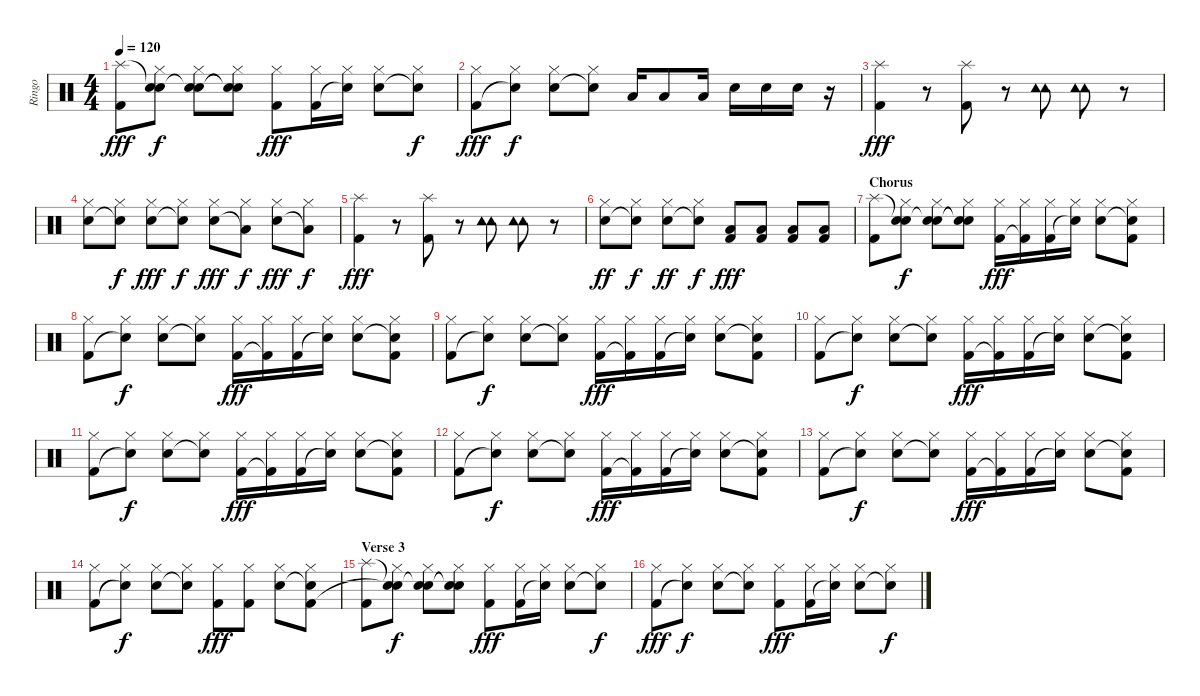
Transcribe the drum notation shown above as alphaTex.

\track ("Ringo" "Ringo") {instrument percussion}
\staff {score}
\articulation defaults
\ts (4 4)
\tempo 120
\clef neutral
\ks c
("Splash (hit)" "Kick (hit) 2").8{dy fff} ("Snare (hit)"{t} "Hi-Hat (closed)" "Snare (hit)").8{dy f} ("Snare (hit)"{t} "Hi-Hat (closed)" "Snare (hit) 2").8 ("Snare (hit)"{t} "Hi-Hat (closed)" "Snare (hit)"{t}).8 ("Hi-Hat (closed)" "Kick (hit) 2").8{dy fff} ("Hi-Hat (closed)" "Kick (hit) 2").16 ("Hi-Hat (closed)" "Snare (hit)"{t}).16 ("Hi-Hat (closed)" "Snare (hit) 2").8 ("Hi-Hat (closed)" "Snare (hit)"{t}).8{dy f} |
("Hi-Hat (closed)" "Kick (hit) 2").8{dy fff} ("Hi-Hat (closed)" "Snare (hit)"{t}).8{dy f} ("Hi-Hat (closed)" "Snare (hit) 2").8 ("Hi-Hat (closed)" "Snare (hit)"{t}).8 "Low Floor Tom (hit)".16 "Low Floor Tom (hit)".8 "Low Floor Tom (hit)".16 "Snare (hit) 2".16 "Snare (hit) 2".16 "Snare (hit) 2".16 r.16 |
("Splash (hit)" "Kick (hit) 2").4{dy fff} r.8 ("Splash (hit)" "Kick (hit) 2").8 r.8 ("Tambourine (hit)" "Tambourine (hit)").8 ("Tambourine (hit)" "Tambourine (hit)").8 r.8 |
("Hi-Hat (closed)" "Snare (hit) 2").8 ("Hi-Hat (closed)" "Snare (hit)"{t}).8{dy f} ("Hi-Hat (closed)" "Snare (hit) 2").8{dy fff} ("Hi-Hat (closed)" "Snare (hit)"{t}).8{dy f} ("Hi-Hat (closed)" "Snare (hit) 2").8{dy fff} ("Hi-Hat (closed)" "Low Floor Tom (hit)"{t}).8{dy f} ("Hi-Hat (closed)" "Snare (hit) 2").8{dy fff} ("Hi-Hat (closed)" "Low Floor Tom (hit)"{t}).8{dy f} |
("Splash (hit)" "Kick (hit) 2").4{dy fff} r.8 ("Splash (hit)" "Kick (hit) 2").8 r.8 ("Tambourine (hit)" "Tambourine (hit)").8 ("Tambourine (hit)" "Tambourine (hit)").8 r.8 |
("Hi-Hat (closed)" "Snare (hit) 2").8{dy ff} ("Hi-Hat (closed)" "Snare (hit)"{t}).8{dy f} ("Hi-Hat (closed)" "Snare (hit) 2").8{dy ff} ("Hi-Hat (closed)" "Snare (hit)"{t}).8{dy f} ("Low Floor Tom (hit)" "Kick (hit) 2").8{dy fff} ("Low Floor Tom (hit)" "Kick (hit) 2").8 ("Low Floor Tom (hit)" "Kick (hit) 2").8 ("Low Floor Tom (hit)" "Kick (hit) 2").8 |
\section ("" "Chorus")
("Splash (hit)" "Kick (hit) 2").8 ("Snare (hit)"{t} "Hi-Hat (closed)" "Snare (hit)").8{dy f} ("Snare (hit)"{t} "Hi-Hat (closed)" "Snare (hit) 2").8 ("Snare (hit)"{t} "Hi-Hat (closed)" "Snare (hit)"{t}).8 ("Hi-Hat (closed)" "Kick (hit) 2").16{dy fff} ("Hi-Hat (closed)" "Kick (hit) 2"{t}).16 ("Hi-Hat (closed)" "Kick (hit) 2").16 ("Hi-Hat (closed)" "Snare (hit)"{t}).16 ("Hi-Hat (closed)" "Snare (hit) 2").8 ("Hi-Hat (closed)" "Snare (hit)"{t} "Kick (hit) 2").8 |
("Hi-Hat (closed)" "Kick (hit) 2").8 ("Hi-Hat (closed)" "Snare (hit)"{t}).8{dy f} ("Hi-Hat (closed)" "Snare (hit) 2").8 ("Hi-Hat (closed)" "Snare (hit)"{t}).8 ("Hi-Hat (closed)" "Kick (hit) 2").16{dy fff} ("Hi-Hat (closed)" "Kick (hit) 2"{t}).16 ("Hi-Hat (closed)" "Kick (hit) 2").16 ("Hi-Hat (closed)" "Snare (hit)"{t}).16 ("Hi-Hat (closed)" "Snare (hit) 2").8 ("Hi-Hat (closed)" "Snare (hit)"{t} "Kick (hit) 2").8 |
("Hi-Hat (closed)" "Kick (hit) 2").8 ("Hi-Hat (closed)" "Snare (hit)"{t}).8{dy f} ("Hi-Hat (closed)" "Snare (hit) 2").8 ("Hi-Hat (closed)" "Snare (hit)"{t}).8 ("Hi-Hat (closed)" "Kick (hit) 2").16{dy fff} ("Hi-Hat (closed)" "Kick (hit) 2"{t}).16 ("Hi-Hat (closed)" "Kick (hit) 2").16 ("Hi-Hat (closed)" "Snare (hit)"{t}).16 ("Hi-Hat (closed)" "Snare (hit) 2").8 ("Hi-Hat (closed)" "Snare (hit)"{t} "Kick (hit) 2").8 |
("Hi-Hat (closed)" "Kick (hit) 2").8 ("Hi-Hat (closed)" "Snare (hit)"{t}).8{dy f} ("Hi-Hat (closed)" "Snare (hit) 2").8 ("Hi-Hat (closed)" "Snare (hit)"{t}).8 ("Hi-Hat (closed)" "Kick (hit) 2").16{dy fff} ("Hi-Hat (closed)" "Kick (hit) 2"{t}).16 ("Hi-Hat (closed)" "Kick (hit) 2").16 ("Hi-Hat (closed)" "Snare (hit)"{t}).16 ("Hi-Hat (closed)" "Snare (hit) 2").8 ("Hi-Hat (closed)" "Snare (hit)"{t} "Kick (hit) 2").8 |
("Hi-Hat (closed)" "Kick (hit) 2").8 ("Hi-Hat (closed)" "Snare (hit)"{t}).8{dy f} ("Hi-Hat (closed)" "Snare (hit) 2").8 ("Hi-Hat (closed)" "Snare (hit)"{t}).8 ("Hi-Hat (closed)" "Kick (hit) 2").16{dy fff} ("Hi-Hat (closed)" "Kick (hit) 2"{t}).16 ("Hi-Hat (closed)" "Kick (hit) 2").16 ("Hi-Hat (closed)" "Snare (hit)"{t}).16 ("Hi-Hat (closed)" "Snare (hit) 2").8 ("Hi-Hat (closed)" "Snare (hit)"{t} "Kick (hit) 2").8 |
("Hi-Hat (closed)" "Kick (hit) 2").8 ("Hi-Hat (closed)" "Snare (hit)"{t}).8{dy f} ("Hi-Hat (closed)" "Snare (hit) 2").8 ("Hi-Hat (closed)" "Snare (hit)"{t}).8 ("Hi-Hat (closed)" "Kick (hit) 2").16{dy fff} ("Hi-Hat (closed)" "Kick (hit) 2"{t}).16 ("Hi-Hat (closed)" "Kick (hit) 2").16 ("Hi-Hat (closed)" "Snare (hit)"{t}).16 ("Hi-Hat (closed)" "Snare (hit) 2").8 ("Hi-Hat (closed)" "Snare (hit)"{t} "Kick (hit) 2").8 |
("Hi-Hat (closed)" "Kick (hit) 2").8 ("Hi-Hat (closed)" "Snare (hit)"{t}).8{dy f} ("Hi-Hat (closed)" "Snare (hit) 2").8 ("Hi-Hat (closed)" "Snare (hit)"{t}).8 ("Hi-Hat (closed)" "Kick (hit) 2").16{dy fff} ("Hi-Hat (closed)" "Kick (hit) 2"{t}).16 ("Hi-Hat (closed)" "Kick (hit) 2").16 ("Hi-Hat (closed)" "Snare (hit)"{t}).16 ("Hi-Hat (closed)" "Snare (hit) 2").8 ("Hi-Hat (closed)" "Snare (hit)"{t} "Kick (hit) 2").8 |
("Hi-Hat (closed)" "Kick (hit) 2").8 ("Hi-Hat (closed)" "Snare (hit)"{t}).8{dy f} ("Hi-Hat (closed)" "Snare (hit) 2").8 ("Hi-Hat (closed)" "Snare (hit)"{t}).8 ("Hi-Hat (closed)" "Kick (hit) 2").8{dy fff} ("Hi-Hat (closed)" "Kick (hit) 2").8 ("Hi-Hat (closed)" "Snare (hit) 2").8 ("Hi-Hat (closed)" "Snare (hit)"{t} "Kick (hit) 2").8 |
\section ("" "Verse 3")
("Splash (hit)" "Kick (hit) 2").8 ("Snare (hit)"{t} "Hi-Hat (closed)" "Snare (hit)"{t}).8{dy f} ("Snare (hit)"{t} "Hi-Hat (closed)" "Snare (hit) 2").8 ("Snare (hit)"{t} "Hi-Hat (closed)" "Snare (hit)"{t}).8 ("Hi-Hat (closed)" "Kick (hit) 2").8{dy fff} ("Hi-Hat (closed)" "Kick (hit) 2").16 ("Hi-Hat (closed)" "Snare (hit)"{t}).16 ("Hi-Hat (closed)" "Snare (hit) 2").8 ("Hi-Hat (closed)" "Snare (hit)"{t}).8{dy f} |
("Hi-Hat (closed)" "Kick (hit) 2").8{dy fff} ("Hi-Hat (closed)" "Snare (hit)"{t}).8{dy f} ("Hi-Hat (closed)" "Snare (hit) 2").8 ("Hi-Hat (closed)" "Snare (hit)"{t}).8 ("Hi-Hat (closed)" "Kick (hit) 2").8{dy fff} ("Hi-Hat (closed)" "Kick (hit) 2").16 ("Hi-Hat (closed)" "Snare (hit)"{t}).16 ("Hi-Hat (closed)" "Snare (hit) 2").8 ("Hi-Hat (closed)" "Snare (hit)"{t}).8{dy f}
